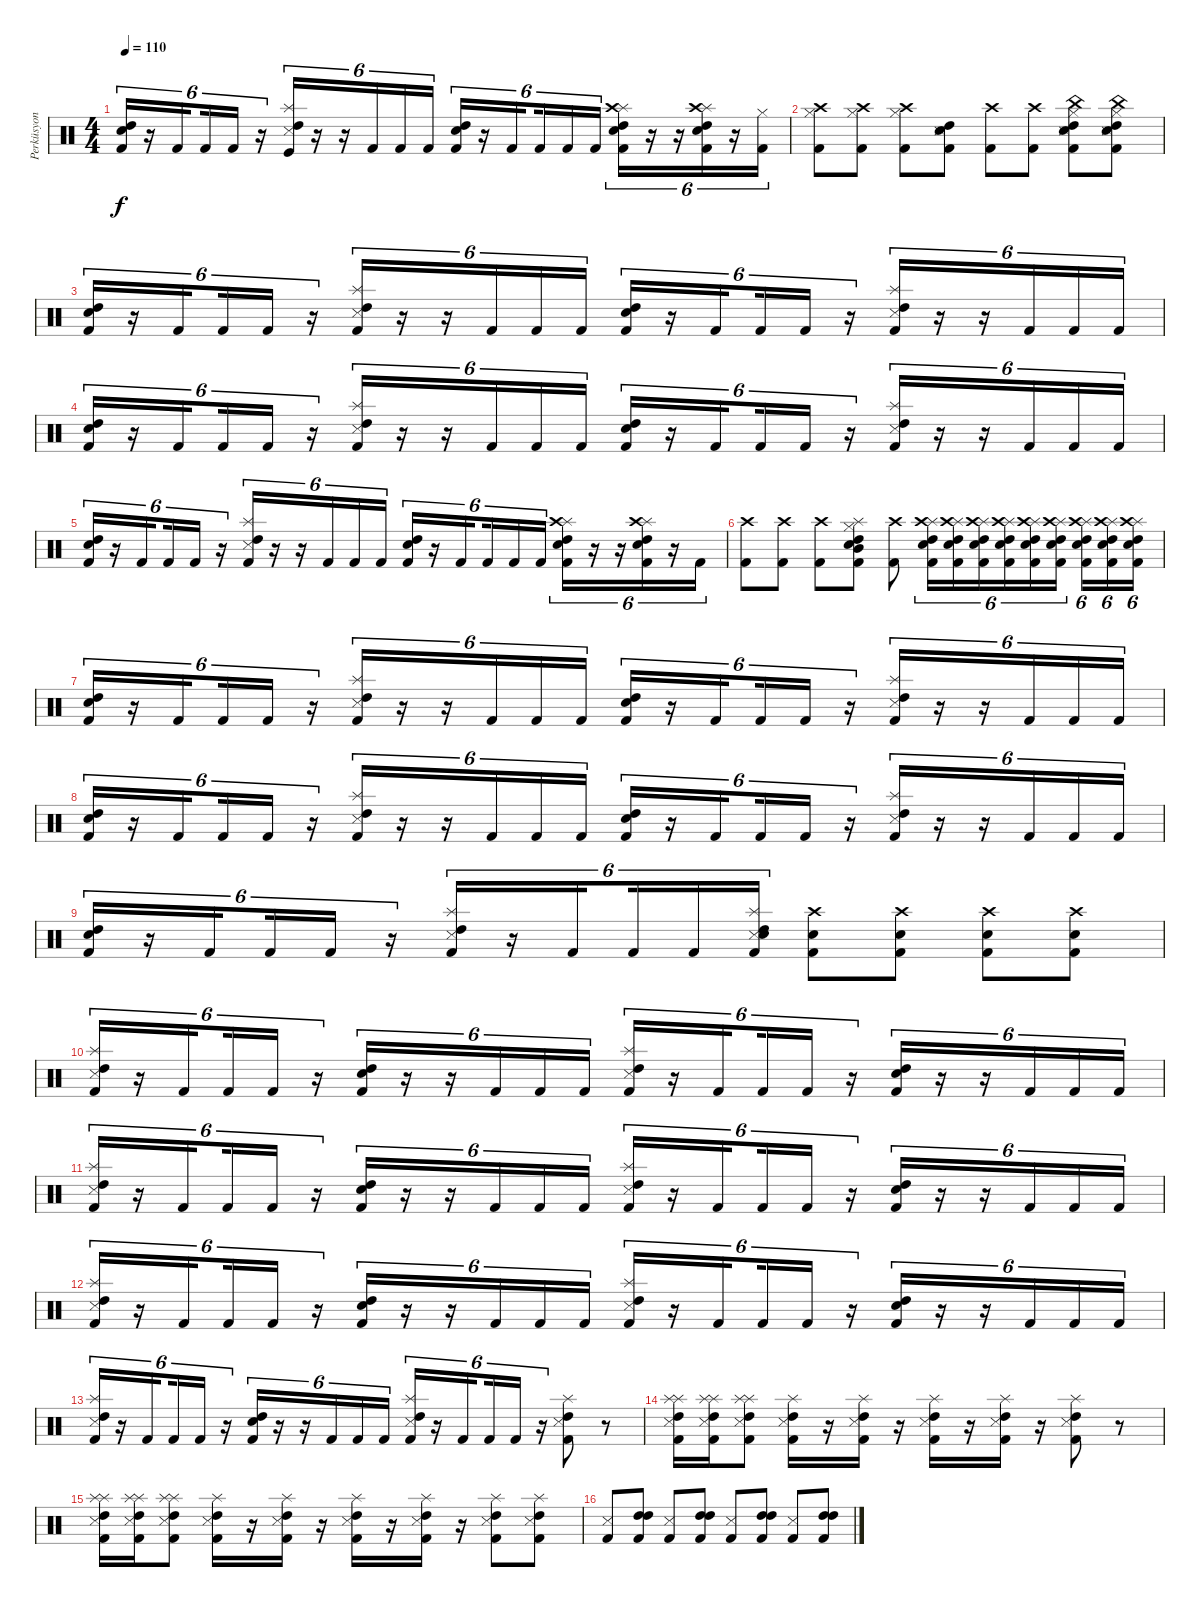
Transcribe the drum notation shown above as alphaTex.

\track ("Perküsyon" "Perküsyon") {instrument percussion}
\staff {score}
\articulation defaults
\ts (4 4)
\tempo 110
\clef neutral
\ks c
("Snare (hit) 2" "High Tom (hit)" "Kick (hit) 2").16{tu (6 4) dy f} r.16{tu (6 4)} "Kick (hit) 2".16{tu (6 4) beam splitsecondary} "Kick (hit) 2".16{tu (6 4)} "Kick (hit) 2".16{tu (6 4)} r.16{tu (6 4)} ("Splash (hit)" "Snare (side stick) 3" "High Tom (hit)" "Kick (hit)").16{tu (6 4)} r.16{tu (6 4)} r.16{tu (6 4)} "Kick (hit) 2".16{tu (6 4)} "Kick (hit) 2".16{tu (6 4)} "Kick (hit) 2".16{tu (6 4)} ("Snare (hit) 2" "High Tom (hit)" "Kick (hit) 2").16{tu (6 4)} r.16{tu (6 4)} "Kick (hit) 2".16{tu (6 4) beam splitsecondary} "Kick (hit) 2".16{tu (6 4)} "Kick (hit) 2".16{tu (6 4)} "Kick (hit) 2".16{tu (6 4)} ("Splash (hit)" "Crash high (hit)" "Snare (hit) 2" "High Tom (hit)" "Kick (hit) 2").16{tu (6 4)} r.16{tu (6 4)} r.16{tu (6 4)} ("Splash (hit)" "Crash high (hit)" "Snare (hit) 2" "High Tom (hit)" "Kick (hit) 2").16{tu (6 4)} r.16{tu (6 4)} ("Hi-Hat (closed)" "Kick (hit) 2").16{tu (6 4)} |
("Crash high (hit)" "Hi-Hat (closed)" "Kick (hit) 2").8 ("Crash high (hit)" "Hi-Hat (closed)" "Kick (hit) 2").8 ("Crash high (hit)" "Hi-Hat (closed)" "Kick (hit) 2").8 ("Snare (hit) 2" "High Tom (hit)" "Snare (side stick) 3" "Kick (hit) 2").8 ("Crash high (hit)" "Kick (hit) 2").8 ("Crash high (hit)" "Kick (hit) 2").8 ("China (hit)" "Hi-Hat (closed)" "Snare (side stick) 3" "Snare (hit) 2" "High Tom (hit)" "Kick (hit) 2").8 ("China (hit)" "Hi-Hat (closed)" "Snare (side stick) 3" "Snare (hit) 2" "High Tom (hit)" "Kick (hit) 2").8 |
("Snare (hit) 2" "High Tom (hit)" "Kick (hit) 2").16{tu (6 4)} r.16{tu (6 4)} "Kick (hit) 2".16{tu (6 4) beam splitsecondary} "Kick (hit) 2".16{tu (6 4)} "Kick (hit) 2".16{tu (6 4)} r.16{tu (6 4)} ("Splash (hit)" "Snare (side stick) 3" "High Tom (hit)" "Kick (hit) 2").16{tu (6 4)} r.16{tu (6 4)} r.16{tu (6 4)} "Kick (hit) 2".16{tu (6 4)} "Kick (hit) 2".16{tu (6 4)} "Kick (hit) 2".16{tu (6 4)} ("Snare (hit) 2" "High Tom (hit)" "Kick (hit) 2").16{tu (6 4)} r.16{tu (6 4)} "Kick (hit) 2".16{tu (6 4) beam splitsecondary} "Kick (hit) 2".16{tu (6 4)} "Kick (hit) 2".16{tu (6 4)} r.16{tu (6 4)} ("Splash (hit)" "Snare (side stick) 3" "High Tom (hit)" "Kick (hit) 2").16{tu (6 4)} r.16{tu (6 4)} r.16{tu (6 4)} "Kick (hit) 2".16{tu (6 4)} "Kick (hit) 2".16{tu (6 4)} "Kick (hit) 2".16{tu (6 4)} |
("Snare (hit) 2" "High Tom (hit)" "Kick (hit) 2").16{tu (6 4)} r.16{tu (6 4)} "Kick (hit) 2".16{tu (6 4) beam splitsecondary} "Kick (hit) 2".16{tu (6 4)} "Kick (hit) 2".16{tu (6 4)} r.16{tu (6 4)} ("Splash (hit)" "Snare (side stick) 3" "High Tom (hit)" "Kick (hit) 2").16{tu (6 4)} r.16{tu (6 4)} r.16{tu (6 4)} "Kick (hit) 2".16{tu (6 4)} "Kick (hit) 2".16{tu (6 4)} "Kick (hit) 2".16{tu (6 4)} ("Snare (hit) 2" "High Tom (hit)" "Kick (hit) 2").16{tu (6 4)} r.16{tu (6 4)} "Kick (hit) 2".16{tu (6 4) beam splitsecondary} "Kick (hit) 2".16{tu (6 4)} "Kick (hit) 2".16{tu (6 4)} r.16{tu (6 4)} ("Splash (hit)" "Snare (side stick) 3" "High Tom (hit)" "Kick (hit) 2").16{tu (6 4)} r.16{tu (6 4)} r.16{tu (6 4)} "Kick (hit) 2".16{tu (6 4)} "Kick (hit) 2".16{tu (6 4)} "Kick (hit) 2".16{tu (6 4)} |
("Snare (hit) 2" "High Tom (hit)" "Kick (hit) 2").16{tu (6 4)} r.16{tu (6 4)} "Kick (hit) 2".16{tu (6 4) beam splitsecondary} "Kick (hit) 2".16{tu (6 4)} "Kick (hit) 2".16{tu (6 4)} r.16{tu (6 4)} ("Splash (hit)" "Snare (side stick) 3" "High Tom (hit)" "Kick (hit) 2").16{tu (6 4)} r.16{tu (6 4)} r.16{tu (6 4)} "Kick (hit) 2".16{tu (6 4)} "Kick (hit) 2".16{tu (6 4)} "Kick (hit) 2".16{tu (6 4)} ("High Tom (hit)" "Snare (hit) 2" "Kick (hit) 2").16{tu (6 4)} r.16{tu (6 4)} "Kick (hit) 2".16{tu (6 4) beam splitsecondary} "Kick (hit) 2".16{tu (6 4)} "Kick (hit) 2".16{tu (6 4)} "Kick (hit) 2".16{tu (6 4)} ("Splash (hit)" "Crash high (hit)" "High Tom (hit)" "Snare (hit) 2" "Kick (hit) 2").16{tu (6 4)} r.16{tu (6 4)} r.16{tu (6 4)} ("Splash (hit)" "Crash high (hit)" "High Tom (hit)" "Snare (hit) 2" "Kick (hit) 2").16{tu (6 4)} r.16{tu (6 4)} "Kick (hit) 2".16{tu (6 4)} |
("Crash high (hit)" "Kick (hit) 2").8 ("Crash high (hit)" "Kick (hit) 2").8 ("Crash high (hit)" "Kick (hit) 2").8 ("Mid Tom (hit)" "Hi-Hat (closed)" "Splash (hit)" "Snare (hit) 2" "High Tom (hit)" "Kick (hit) 2").8 ("Crash high (hit)" "Kick (hit) 2").8 ("Splash (hit)" "Crash high (hit)" "High Tom (hit)" "Snare (hit) 2" "Kick (hit) 2").16{tu (6 4)} ("Splash (hit)" "Crash high (hit)" "High Tom (hit)" "Snare (hit) 2" "Kick (hit) 2").16{tu (6 4)} ("Splash (hit)" "Crash high (hit)" "High Tom (hit)" "Snare (hit) 2" "Kick (hit) 2").16{tu (6 4)} ("Splash (hit)" "Crash high (hit)" "High Tom (hit)" "Snare (hit) 2" "Kick (hit) 2").16{tu (6 4)} ("Splash (hit)" "Crash high (hit)" "High Tom (hit)" "Snare (hit) 2" "Kick (hit) 2").16{tu (6 4)} ("Splash (hit)" "Crash high (hit)" "High Tom (hit)" "Snare (hit) 2" "Kick (hit) 2").16{tu (6 4) beam splitsecondary} ("Splash (hit)" "Crash high (hit)" "High Tom (hit)" "Snare (hit) 2" "Kick (hit) 2").16{tu (6 4)} ("Splash (hit)" "Crash high (hit)" "High Tom (hit)" "Snare (hit) 2" "Kick (hit) 2").16{tu (6 4)} ("Splash (hit)" "Crash high (hit)" "High Tom (hit)" "Snare (hit) 2" "Kick (hit) 2").16{tu (6 4)} |
("Snare (hit) 2" "High Tom (hit)" "Kick (hit) 2").16{tu (6 4)} r.16{tu (6 4)} "Kick (hit) 2".16{tu (6 4) beam splitsecondary} "Kick (hit) 2".16{tu (6 4)} "Kick (hit) 2".16{tu (6 4)} r.16{tu (6 4)} ("Splash (hit)" "Snare (side stick) 3" "High Tom (hit)" "Kick (hit) 2").16{tu (6 4)} r.16{tu (6 4)} r.16{tu (6 4)} "Kick (hit) 2".16{tu (6 4)} "Kick (hit) 2".16{tu (6 4)} "Kick (hit) 2".16{tu (6 4)} ("Snare (hit) 2" "High Tom (hit)" "Kick (hit) 2").16{tu (6 4)} r.16{tu (6 4)} "Kick (hit) 2".16{tu (6 4) beam splitsecondary} "Kick (hit) 2".16{tu (6 4)} "Kick (hit) 2".16{tu (6 4)} r.16{tu (6 4)} ("Splash (hit)" "Snare (side stick) 3" "High Tom (hit)" "Kick (hit) 2").16{tu (6 4)} r.16{tu (6 4)} r.16{tu (6 4)} "Kick (hit) 2".16{tu (6 4)} "Kick (hit) 2".16{tu (6 4)} "Kick (hit) 2".16{tu (6 4)} |
("Snare (hit) 2" "High Tom (hit)" "Kick (hit) 2").16{tu (6 4)} r.16{tu (6 4)} "Kick (hit) 2".16{tu (6 4) beam splitsecondary} "Kick (hit) 2".16{tu (6 4)} "Kick (hit) 2".16{tu (6 4)} r.16{tu (6 4)} ("Splash (hit)" "Snare (side stick) 3" "High Tom (hit)" "Kick (hit) 2").16{tu (6 4)} r.16{tu (6 4)} r.16{tu (6 4)} "Kick (hit) 2".16{tu (6 4)} "Kick (hit) 2".16{tu (6 4)} "Kick (hit) 2".16{tu (6 4)} ("Snare (hit) 2" "High Tom (hit)" "Kick (hit) 2").16{tu (6 4)} r.16{tu (6 4)} "Kick (hit) 2".16{tu (6 4) beam splitsecondary} "Kick (hit) 2".16{tu (6 4)} "Kick (hit) 2".16{tu (6 4)} r.16{tu (6 4)} ("Splash (hit)" "High Tom (hit)" "Snare (side stick) 3" "Kick (hit) 2").16{tu (6 4)} r.16{tu (6 4)} r.16{tu (6 4)} "Kick (hit) 2".16{tu (6 4)} "Kick (hit) 2".16{tu (6 4)} "Kick (hit) 2".16{tu (6 4)} |
("Snare (hit) 2" "High Tom (hit)" "Kick (hit) 2").16{tu (6 4)} r.16{tu (6 4)} "Kick (hit) 2".16{tu (6 4) beam splitsecondary} "Kick (hit) 2".16{tu (6 4)} "Kick (hit) 2".16{tu (6 4)} r.16{tu (6 4)} ("Splash (hit)" "Snare (side stick) 3" "High Tom (hit)" "Kick (hit) 2").16{tu (6 4)} r.16{tu (6 4)} "Kick (hit) 2".16{tu (6 4) beam splitsecondary} "Kick (hit) 2".16{tu (6 4)} "Kick (hit) 2".16{tu (6 4)} ("Splash (hit)" "Snare (side stick) 3" "Snare (hit) 2" "High Tom (hit)" "Kick (hit) 2").16{tu (6 4)} ("Crash high (hit)" "Snare (hit) 2" "Kick (hit) 2").8 ("Crash high (hit)" "Snare (hit) 2" "Kick (hit) 2").8 ("Crash high (hit)" "Snare (hit) 2" "Kick (hit) 2").8 ("Crash high (hit)" "Snare (hit) 2" "Kick (hit) 2").8 |
("Splash (hit)" "Snare (side stick) 3" "High Tom (hit)" "Kick (hit) 2").16{tu (6 4)} r.16{tu (6 4)} "Kick (hit) 2".16{tu (6 4) beam splitsecondary} "Kick (hit) 2".16{tu (6 4)} "Kick (hit) 2".16{tu (6 4)} r.16{tu (6 4)} ("Snare (hit) 2" "High Tom (hit)" "Kick (hit) 2").16{tu (6 4)} r.16{tu (6 4)} r.16{tu (6 4)} "Kick (hit) 2".16{tu (6 4)} "Kick (hit) 2".16{tu (6 4)} "Kick (hit) 2".16{tu (6 4)} ("Splash (hit)" "Snare (side stick) 3" "High Tom (hit)" "Kick (hit) 2").16{tu (6 4)} r.16{tu (6 4)} "Kick (hit) 2".16{tu (6 4) beam splitsecondary} "Kick (hit) 2".16{tu (6 4)} "Kick (hit) 2".16{tu (6 4)} r.16{tu (6 4)} ("Snare (hit) 2" "High Tom (hit)" "Kick (hit) 2").16{tu (6 4)} r.16{tu (6 4)} r.16{tu (6 4)} "Kick (hit) 2".16{tu (6 4)} "Kick (hit) 2".16{tu (6 4)} "Kick (hit) 2".16{tu (6 4)} |
("Splash (hit)" "Snare (side stick) 3" "High Tom (hit)" "Kick (hit) 2").16{tu (6 4)} r.16{tu (6 4)} "Kick (hit) 2".16{tu (6 4) beam splitsecondary} "Kick (hit) 2".16{tu (6 4)} "Kick (hit) 2".16{tu (6 4)} r.16{tu (6 4)} ("Snare (hit) 2" "High Tom (hit)" "Kick (hit) 2").16{tu (6 4)} r.16{tu (6 4)} r.16{tu (6 4)} "Kick (hit) 2".16{tu (6 4)} "Kick (hit) 2".16{tu (6 4)} "Kick (hit) 2".16{tu (6 4)} ("Splash (hit)" "Snare (side stick) 3" "High Tom (hit)" "Kick (hit) 2").16{tu (6 4)} r.16{tu (6 4)} "Kick (hit) 2".16{tu (6 4) beam splitsecondary} "Kick (hit) 2".16{tu (6 4)} "Kick (hit) 2".16{tu (6 4)} r.16{tu (6 4)} ("Snare (hit) 2" "High Tom (hit)" "Kick (hit) 2").16{tu (6 4)} r.16{tu (6 4)} r.16{tu (6 4)} "Kick (hit) 2".16{tu (6 4)} "Kick (hit) 2".16{tu (6 4)} "Kick (hit) 2".16{tu (6 4)} |
("Splash (hit)" "Snare (side stick) 3" "High Tom (hit)" "Kick (hit) 2").16{tu (6 4)} r.16{tu (6 4)} "Kick (hit) 2".16{tu (6 4) beam splitsecondary} "Kick (hit) 2".16{tu (6 4)} "Kick (hit) 2".16{tu (6 4)} r.16{tu (6 4)} ("Snare (hit) 2" "High Tom (hit)" "Kick (hit) 2").16{tu (6 4)} r.16{tu (6 4)} r.16{tu (6 4)} "Kick (hit) 2".16{tu (6 4)} "Kick (hit) 2".16{tu (6 4)} "Kick (hit) 2".16{tu (6 4)} ("Splash (hit)" "Snare (side stick) 3" "High Tom (hit)" "Kick (hit) 2").16{tu (6 4)} r.16{tu (6 4)} "Kick (hit) 2".16{tu (6 4) beam splitsecondary} "Kick (hit) 2".16{tu (6 4)} "Kick (hit) 2".16{tu (6 4)} r.16{tu (6 4)} ("Snare (hit) 2" "High Tom (hit)" "Kick (hit) 2").16{tu (6 4)} r.16{tu (6 4)} r.16{tu (6 4)} "Kick (hit) 2".16{tu (6 4)} "Kick (hit) 2".16{tu (6 4)} "Kick (hit) 2".16{tu (6 4)} |
("Splash (hit)" "Snare (side stick) 3" "High Tom (hit)" "Kick (hit) 2").16{tu (6 4)} r.16{tu (6 4)} "Kick (hit) 2".16{tu (6 4) beam splitsecondary} "Kick (hit) 2".16{tu (6 4)} "Kick (hit) 2".16{tu (6 4)} r.16{tu (6 4)} ("Snare (hit) 2" "High Tom (hit)" "Kick (hit) 2").16{tu (6 4)} r.16{tu (6 4)} r.16{tu (6 4)} "Kick (hit) 2".16{tu (6 4)} "Kick (hit) 2".16{tu (6 4)} "Kick (hit) 2".16{tu (6 4)} ("Splash (hit)" "Snare (side stick) 3" "High Tom (hit)" "Kick (hit) 2").16{tu (6 4)} r.16{tu (6 4)} "Kick (hit) 2".16{tu (6 4) beam splitsecondary} "Kick (hit) 2".16{tu (6 4)} "Kick (hit) 2".16{tu (6 4)} r.16{tu (6 4)} ("Snare (side stick) 3" "High Tom (hit)" "Splash (hit)" "Kick (hit) 2").8 r.8 |
("Splash (hit)" "Snare (side stick) 3" "High Tom (hit)" "Splash (hit)" "Kick (hit) 2").16 ("Splash (hit)" "Snare (side stick) 3" "High Tom (hit)" "Splash (hit)" "Kick (hit) 2").16 ("Splash (hit)" "Snare (side stick) 3" "High Tom (hit)" "Splash (hit)" "Kick (hit) 2").8 ("Snare (side stick) 3" "High Tom (hit)" "Splash (hit)" "Kick (hit) 2").16 r.16 ("Snare (side stick) 3" "High Tom (hit)" "Splash (hit)" "Kick (hit) 2").16 r.16 ("Snare (side stick) 3" "High Tom (hit)" "Splash (hit)" "Kick (hit) 2").16 r.16 ("Snare (side stick) 3" "High Tom (hit)" "Splash (hit)" "Kick (hit) 2").16 r.16 ("Snare (side stick) 3" "High Tom (hit)" "Splash (hit)" "Kick (hit) 2").8 r.8 |
("Splash (hit)" "Snare (side stick) 3" "High Tom (hit)" "Splash (hit)" "Kick (hit) 2").16 ("Splash (hit)" "Snare (side stick) 3" "High Tom (hit)" "Splash (hit)" "Kick (hit) 2").16 ("Splash (hit)" "Snare (side stick) 3" "High Tom (hit)" "Splash (hit)" "Kick (hit) 2").8 ("Snare (side stick) 3" "High Tom (hit)" "Splash (hit)" "Kick (hit) 2").16 r.16 ("Snare (side stick) 3" "High Tom (hit)" "Splash (hit)" "Kick (hit) 2").16 r.16 ("Snare (side stick) 3" "High Tom (hit)" "Splash (hit)" "Kick (hit) 2").16 r.16 ("Snare (side stick) 3" "High Tom (hit)" "Splash (hit)" "Kick (hit) 2").16 r.16 ("Snare (side stick) 3" "High Tom (hit)" "Splash (hit)" "Kick (hit) 2").8 ("Snare (side stick) 3" "High Tom (hit)" "Splash (hit)" "Kick (hit) 2").8 |
("Snare (side stick) 3" "Kick (hit) 2").8 ("High Tom (hit)" "High Tom (hit)" "Kick (hit) 2").8 ("Snare (side stick) 3" "Kick (hit) 2").8 ("High Tom (hit)" "High Tom (hit)" "Kick (hit) 2").8 ("Snare (side stick) 3" "Kick (hit) 2").8 ("High Tom (hit)" "High Tom (hit)" "Kick (hit) 2").8 ("Snare (side stick) 3" "Kick (hit) 2").8 ("High Tom (hit)" "High Tom (hit)" "Kick (hit) 2").8
